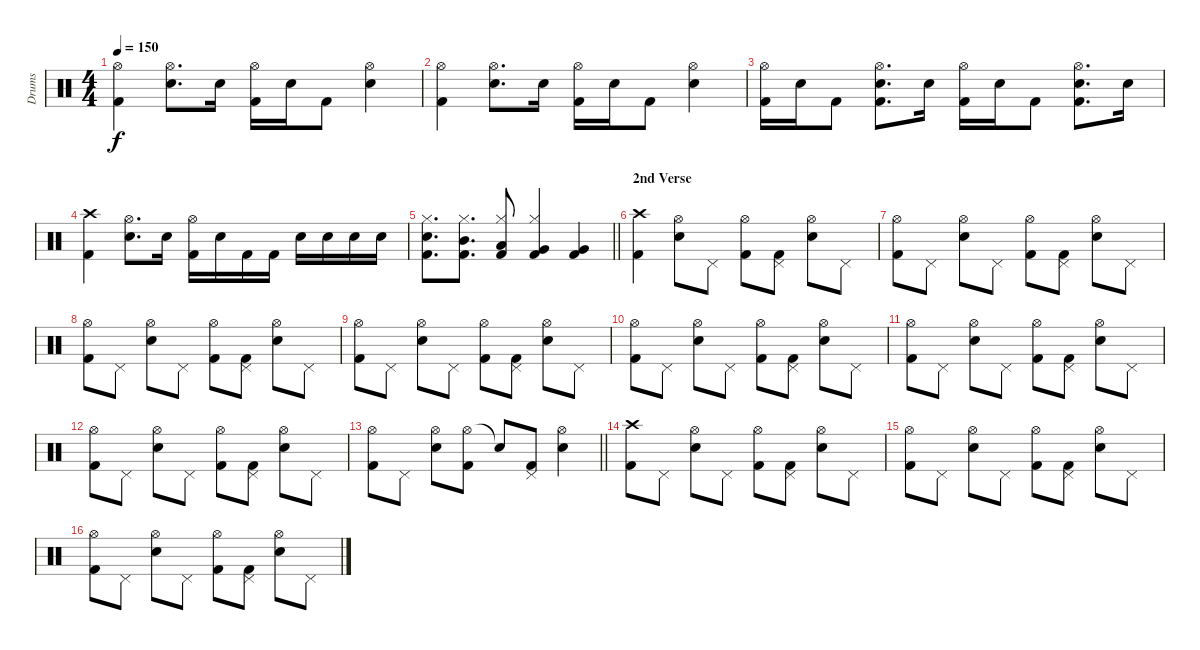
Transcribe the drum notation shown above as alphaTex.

\track ("Drums" "Drums") {instrument percussion}
\staff {score}
\articulation defaults
\ts (4 4)
\tempo 150
\clef neutral
\ks c
("Hi-Hat (open)" "Kick (hit) 2").4{dy f} ("Hi-Hat (open)" "Snare (hit) 2").8{d} "Snare (hit) 2".16 ("Hi-Hat (open)" "Kick (hit) 2").16 "Snare (hit) 2".16 "Kick (hit) 2".8 ("Hi-Hat (open)" "Snare (hit) 2").4 |
("Hi-Hat (open)" "Kick (hit) 2").4 ("Hi-Hat (open)" "Snare (hit) 2").8{d} "Snare (hit) 2".16 ("Hi-Hat (open)" "Kick (hit) 2").16 "Snare (hit) 2".16 "Kick (hit) 2".8 ("Hi-Hat (open)" "Snare (hit) 2").4 |
("Hi-Hat (open)" "Kick (hit) 2").16 "Snare (hit) 2".16 "Kick (hit) 2".8 ("Hi-Hat (open)" "Snare (hit) 2" "Kick (hit) 2").8{d} "Snare (hit) 2".16 ("Hi-Hat (open)" "Kick (hit) 2").16 "Snare (hit) 2".16 "Kick (hit) 2".8 ("Hi-Hat (open)" "Snare (hit) 2" "Kick (hit) 2").8{d} "Snare (hit) 2".16 |
("Crash high (hit)" "Kick (hit) 2").4 ("Hi-Hat (open)" "Snare (hit) 2").8{d} "Snare (hit) 2".16 ("Hi-Hat (open)" "Kick (hit) 2").16 "Snare (hit) 2".16 "Kick (hit) 2".16 "Kick (hit) 2".16 "Snare (hit) 2".16 "Snare (hit) 2".16 "Snare (hit) 2".16 "Snare (hit) 2".16 |
\barLineRight lightlight
("Hi-Hat (closed)" "Snare (hit) 2" "Kick (hit) 2").8{d} ("Hi-Hat (closed)" "Mid Tom (hit)" "Kick (hit) 2").8{d} ("Hi-Hat (closed)" "Low Tom (hit)" "Kick (hit) 2").8 ("Hi-Hat (closed)" "Very Low Tom (hit)" "Kick (hit) 2").4 ("Very Low Tom (hit)" "Kick (hit) 2").4 |
\section ("" "2nd Verse")
("Crash high (hit)" "Kick (hit) 2").4 ("Hi-Hat (open)" "Snare (hit) 2").8 "Pedal Hi-Hat (hit)".8 ("Hi-Hat (open)" "Kick (hit) 2").8 ("Pedal Hi-Hat (hit)" "Kick (hit) 2").8 ("Hi-Hat (open)" "Snare (hit) 2").8 "Pedal Hi-Hat (hit)".8 |
("Hi-Hat (open)" "Kick (hit) 2").8 "Pedal Hi-Hat (hit)".8 ("Hi-Hat (open)" "Snare (hit) 2").8 "Pedal Hi-Hat (hit)".8 ("Hi-Hat (open)" "Kick (hit) 2").8 ("Pedal Hi-Hat (hit)" "Kick (hit) 2").8 ("Hi-Hat (open)" "Snare (hit) 2").8 "Pedal Hi-Hat (hit)".8 |
("Hi-Hat (open)" "Kick (hit) 2").8 "Pedal Hi-Hat (hit)".8 ("Hi-Hat (open)" "Snare (hit) 2").8 "Pedal Hi-Hat (hit)".8 ("Hi-Hat (open)" "Kick (hit) 2").8 ("Pedal Hi-Hat (hit)" "Kick (hit) 2").8 ("Hi-Hat (open)" "Snare (hit) 2").8 "Pedal Hi-Hat (hit)".8 |
("Hi-Hat (open)" "Kick (hit) 2").8 "Pedal Hi-Hat (hit)".8 ("Hi-Hat (open)" "Snare (hit) 2").8 "Pedal Hi-Hat (hit)".8 ("Hi-Hat (open)" "Kick (hit) 2").8 ("Pedal Hi-Hat (hit)" "Kick (hit) 2").8 ("Hi-Hat (open)" "Snare (hit) 2").8 "Pedal Hi-Hat (hit)".8 |
("Hi-Hat (open)" "Kick (hit) 2").8 "Pedal Hi-Hat (hit)".8 ("Hi-Hat (open)" "Snare (hit) 2").8 "Pedal Hi-Hat (hit)".8 ("Hi-Hat (open)" "Kick (hit) 2").8 ("Pedal Hi-Hat (hit)" "Kick (hit) 2").8 ("Hi-Hat (open)" "Snare (hit) 2").8 "Pedal Hi-Hat (hit)".8 |
("Hi-Hat (open)" "Kick (hit) 2").8 "Pedal Hi-Hat (hit)".8 ("Hi-Hat (open)" "Snare (hit) 2").8 "Pedal Hi-Hat (hit)".8 ("Hi-Hat (open)" "Kick (hit) 2").8 ("Pedal Hi-Hat (hit)" "Kick (hit) 2").8 ("Hi-Hat (open)" "Snare (hit) 2").8 "Pedal Hi-Hat (hit)".8 |
("Hi-Hat (open)" "Kick (hit) 2").8 "Pedal Hi-Hat (hit)".8 ("Hi-Hat (open)" "Snare (hit) 2").8 "Pedal Hi-Hat (hit)".8 ("Hi-Hat (open)" "Kick (hit) 2").8 ("Pedal Hi-Hat (hit)" "Kick (hit) 2").8 ("Hi-Hat (open)" "Snare (hit) 2").8 "Pedal Hi-Hat (hit)".8 |
\barLineRight lightlight
("Hi-Hat (open)" "Kick (hit) 2").8 "Pedal Hi-Hat (hit)".8 ("Hi-Hat (open)" "Snare (hit) 2").8 ("Hi-Hat (open)" "Kick (hit) 2").8 "Snare (hit)"{t}.8 ("Pedal Hi-Hat (hit)" "Kick (hit) 2").8 ("Hi-Hat (open)" "Snare (hit) 2").4 |
("Crash high (hit)" "Kick (hit) 2").8 "Pedal Hi-Hat (hit)".8 ("Hi-Hat (open)" "Snare (hit) 2").8 "Pedal Hi-Hat (hit)".8 ("Hi-Hat (open)" "Kick (hit) 2").8 ("Pedal Hi-Hat (hit)" "Kick (hit) 2").8 ("Hi-Hat (open)" "Snare (hit) 2").8 "Pedal Hi-Hat (hit)".8 |
("Hi-Hat (open)" "Kick (hit) 2").8 "Pedal Hi-Hat (hit)".8 ("Hi-Hat (open)" "Snare (hit) 2").8 "Pedal Hi-Hat (hit)".8 ("Hi-Hat (open)" "Kick (hit) 2").8 ("Pedal Hi-Hat (hit)" "Kick (hit) 2").8 ("Hi-Hat (open)" "Snare (hit) 2").8 "Pedal Hi-Hat (hit)".8 |
("Hi-Hat (open)" "Kick (hit) 2").8 "Pedal Hi-Hat (hit)".8 ("Hi-Hat (open)" "Snare (hit) 2").8 "Pedal Hi-Hat (hit)".8 ("Hi-Hat (open)" "Kick (hit) 2").8 ("Pedal Hi-Hat (hit)" "Kick (hit) 2").8 ("Hi-Hat (open)" "Snare (hit) 2").8 "Pedal Hi-Hat (hit)".8
